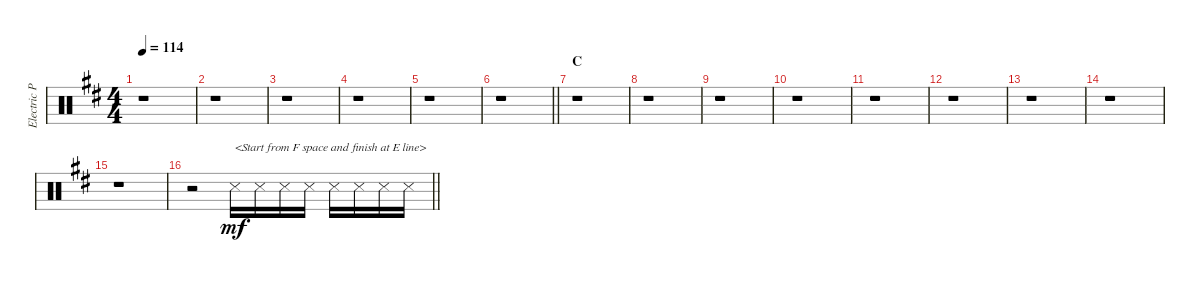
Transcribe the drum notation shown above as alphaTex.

\track ("Electric Percussion" "Electric P") {instrument percussion}
\staff {score}
\articulation defaults
\ts (4 4)
\tempo 114
\clef neutral
\ks d
r.1{dy f} |
r.1 |
r.1 |
r.1 |
r.1 |
\barLineRight lightlight
r.1 |
\section ("" "C")
r.1 |
r.1 |
r.1 |
r.1 |
r.1 |
r.1 |
r.1 |
r.1 |
r.1 |
\barLineRight lightlight
r.2 "Snare (side stick) 3".16{txt "<Start from F space and finish at E line>" dy mf} "Snare (side stick) 3".16 "Snare (side stick) 3".16 "Snare (side stick) 3".16 "Snare (side stick) 3".16 "Snare (side stick) 3".16 "Snare (side stick) 3".16 "Snare (side stick) 3".16
